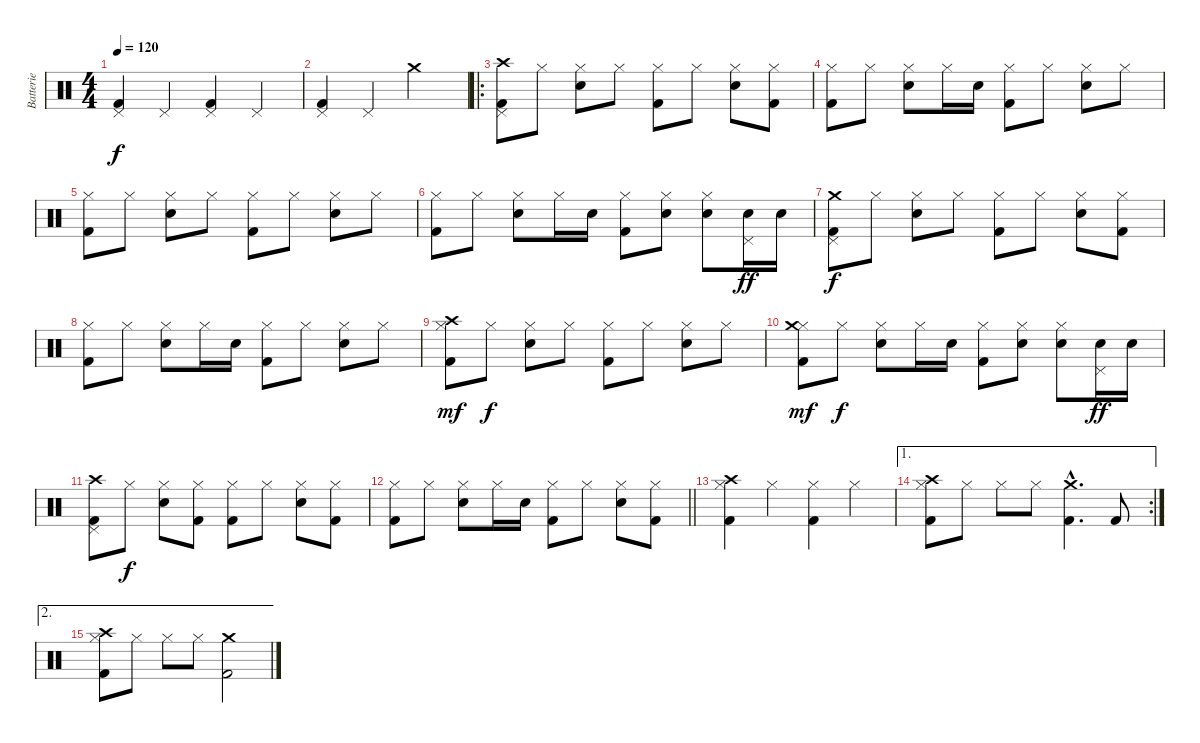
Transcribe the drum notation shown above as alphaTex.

\track ("Batterie" "Batterie") {instrument percussion}
\staff {score}
\articulation defaults
\ts (4 4)
\tempo 120
\clef neutral
\ks c
("Pedal Hi-Hat (hit)" "Kick (hit) 2").4{dy f} "Pedal Hi-Hat (hit)".4 ("Pedal Hi-Hat (hit)" "Kick (hit) 2").4 "Pedal Hi-Hat (hit)".4 |
("Pedal Hi-Hat (hit)" "Kick (hit) 2").4 "Pedal Hi-Hat (hit)".4 "Crash medium (hit)".2 |
\ro
("Pedal Hi-Hat (hit)" "Crash high (hit)" "Kick (hit) 2").8 "Hi-Hat (closed)".8 ("Hi-Hat (closed)" "Snare (hit) 2").8 "Hi-Hat (closed)".8 ("Hi-Hat (closed)" "Kick (hit) 2").8 "Hi-Hat (closed)".8 ("Hi-Hat (closed)" "Snare (hit) 2").8 ("Hi-Hat (closed)" "Kick (hit) 2").8 |
("Hi-Hat (closed)" "Kick (hit) 2").8 "Hi-Hat (closed)".8 ("Hi-Hat (closed)" "Snare (hit) 2").8 "Hi-Hat (closed)".16 "Snare (hit) 2".16 ("Hi-Hat (closed)" "Kick (hit) 2").8 "Hi-Hat (closed)".8 ("Hi-Hat (closed)" "Snare (hit) 2").8 "Hi-Hat (closed)".8 |
("Hi-Hat (closed)" "Kick (hit) 2").8 "Hi-Hat (closed)".8 ("Hi-Hat (closed)" "Snare (hit) 2").8 "Hi-Hat (closed)".8 ("Hi-Hat (closed)" "Kick (hit) 2").8 "Hi-Hat (closed)".8 ("Hi-Hat (closed)" "Snare (hit) 2").8 "Hi-Hat (closed)".8 |
("Hi-Hat (closed)" "Kick (hit) 2").8 "Hi-Hat (closed)".8 ("Hi-Hat (closed)" "Snare (hit) 2").8 "Hi-Hat (closed)".16 "Snare (hit) 2".16 ("Hi-Hat (closed)" "Kick (hit) 2").8 ("Hi-Hat (closed)" "Snare (hit) 2").8 ("Hi-Hat (closed)" "Snare (hit) 2").8 ("Pedal Hi-Hat (hit)" "Snare (hit) 2").16{dy ff} "Snare (hit) 2".16 |
("Pedal Hi-Hat (hit)" "Crash medium (hit)" "Kick (hit) 2").8{dy f} "Hi-Hat (closed)".8 ("Hi-Hat (closed)" "Snare (hit) 2").8 "Hi-Hat (closed)".8 ("Hi-Hat (closed)" "Kick (hit) 2").8 "Hi-Hat (closed)".8 ("Hi-Hat (closed)" "Snare (hit) 2").8 ("Hi-Hat (closed)" "Kick (hit) 2").8 |
("Hi-Hat (closed)" "Kick (hit) 2").8 "Hi-Hat (closed)".8 ("Hi-Hat (closed)" "Snare (hit) 2").8 "Hi-Hat (closed)".16 "Snare (hit) 2".16 ("Hi-Hat (closed)" "Kick (hit) 2").8 "Hi-Hat (closed)".8 ("Hi-Hat (closed)" "Snare (hit) 2").8 "Hi-Hat (closed)".8 |
("Hi-Hat (closed)" "Crash high (hit)" "Kick (hit) 2").8{dy mf} "Hi-Hat (closed)".8{dy f} ("Hi-Hat (closed)" "Snare (hit) 2").8 "Hi-Hat (closed)".8 ("Hi-Hat (closed)" "Kick (hit) 2").8 "Hi-Hat (closed)".8 ("Hi-Hat (closed)" "Snare (hit) 2").8 "Hi-Hat (closed)".8 |
("Hi-Hat (closed)" "Crash medium (hit)" "Kick (hit) 2").8{dy mf} "Hi-Hat (closed)".8{dy f} ("Hi-Hat (closed)" "Snare (hit) 2").8 "Hi-Hat (closed)".16 "Snare (hit) 2".16 ("Hi-Hat (closed)" "Kick (hit) 2").8 ("Hi-Hat (closed)" "Snare (hit) 2").8 ("Hi-Hat (closed)" "Snare (hit) 2").8 ("Pedal Hi-Hat (hit)" "Snare (hit) 2").16{dy ff} "Snare (hit) 2".16 |
("Pedal Hi-Hat (hit)" "Crash high (hit)" "Kick (hit) 2").8 "Hi-Hat (closed)".8{dy f} ("Hi-Hat (closed)" "Snare (hit) 2").8 ("Hi-Hat (closed)" "Kick (hit) 2").8 ("Hi-Hat (closed)" "Kick (hit) 2").8 "Hi-Hat (closed)".8 ("Hi-Hat (closed)" "Snare (hit) 2").8 ("Hi-Hat (closed)" "Kick (hit) 2").8 |
\barLineRight lightlight
("Hi-Hat (closed)" "Kick (hit) 2").8 "Hi-Hat (closed)".8 ("Hi-Hat (closed)" "Snare (hit) 2").8 "Hi-Hat (closed)".16 "Snare (hit) 2".16 ("Hi-Hat (closed)" "Kick (hit) 2").8 "Hi-Hat (closed)".8 ("Hi-Hat (closed)" "Snare (hit) 2").8 ("Hi-Hat (closed)" "Kick (hit) 2").8 |
("Hi-Hat (closed)" "Crash high (hit)" "Kick (hit) 2").4 "Hi-Hat (closed)".4 ("Hi-Hat (closed)" "Kick (hit) 2").4 "Hi-Hat (closed)".4 |
\ae 1
\rc 2
("Hi-Hat (closed)" "Crash high (hit)" "Kick (hit) 2").8 "Hi-Hat (closed)".8 "Hi-Hat (closed)".8 "Hi-Hat (closed)".8 ("Crash medium (hit)"{hac} "Kick (hit) 2"{hac}).4{d} "Kick (hit) 2".8 |
\ae 2
("Hi-Hat (closed)" "Crash high (hit)" "Kick (hit) 2").8 "Hi-Hat (closed)".8 "Hi-Hat (closed)".8 "Hi-Hat (closed)".8 ("Crash medium (hit)" "Kick (hit) 2").2
